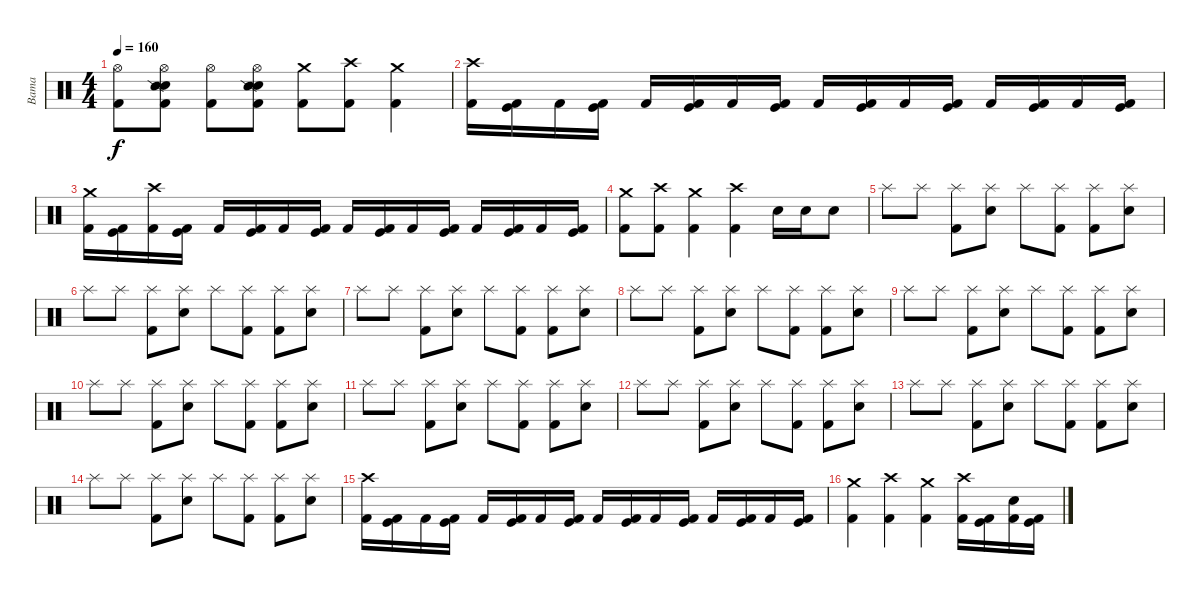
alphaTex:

\track ("Bama" "Bama") {instrument percussion}
\staff {score}
\articulation defaults
\ts (4 4)
\tempo 160
\clef neutral
\ks c
("Hi-Hat (open)" "Kick (hit) 2").8{dy f} ("Hi-Hat (open)" "Electric Snare (hit)" "Snare (side stick) 2" "Kick (hit) 2").8 ("Hi-Hat (open)" "Kick (hit) 2").8 ("Hi-Hat (open)" "Electric Snare (hit)" "Snare (side stick) 2" "Kick (hit) 2").8 ("Crash medium (hit)" "Kick (hit) 2").8 ("Crash high (hit)" "Kick (hit) 2").8 ("Crash medium (hit)" "Kick (hit) 2").4 |
("Crash high (hit)" "Kick (hit) 2").16 ("Kick (hit)" "Kick (hit) 2").16 "Kick (hit) 2".16 ("Kick (hit)" "Kick (hit) 2").16 "Kick (hit) 2".16 ("Kick (hit)" "Kick (hit) 2").16 "Kick (hit) 2".16 ("Kick (hit)" "Kick (hit) 2").16 "Kick (hit) 2".16 ("Kick (hit)" "Kick (hit) 2").16 "Kick (hit) 2".16 ("Kick (hit)" "Kick (hit) 2").16 "Kick (hit) 2".16 ("Kick (hit)" "Kick (hit) 2").16 "Kick (hit) 2".16 ("Kick (hit)" "Kick (hit) 2").16 |
("Crash medium (hit)" "Kick (hit) 2").16 ("Kick (hit)" "Kick (hit) 2").16 ("Crash high (hit)" "Kick (hit) 2").16 ("Kick (hit)" "Kick (hit) 2").16 "Kick (hit) 2".16 ("Kick (hit)" "Kick (hit) 2").16 "Kick (hit) 2".16 ("Kick (hit)" "Kick (hit) 2").16 "Kick (hit) 2".16 ("Kick (hit)" "Kick (hit) 2").16 "Kick (hit) 2".16 ("Kick (hit)" "Kick (hit) 2").16 "Kick (hit) 2".16 ("Kick (hit)" "Kick (hit) 2").16 "Kick (hit) 2".16 ("Kick (hit)" "Kick (hit) 2").16 |
("Crash medium (hit)" "Kick (hit) 2").8 ("Crash high (hit)" "Kick (hit) 2").8 ("Crash medium (hit)" "Kick (hit) 2").4 ("Crash high (hit)" "Kick (hit) 2").4 "Electric Snare (hit)".16 "Electric Snare (hit)".16 "Electric Snare (hit)".8 |
"Splash (hit)".8 "Splash (hit)".8 ("Splash (hit)" "Kick (hit) 2").8 ("Splash (hit)" "Electric Snare (hit)").8 "Splash (hit)".8 ("Splash (hit)" "Kick (hit) 2").8 ("Splash (hit)" "Kick (hit) 2").8 ("Splash (hit)" "Electric Snare (hit)").8 |
"Splash (hit)".8 "Splash (hit)".8 ("Splash (hit)" "Kick (hit) 2").8 ("Splash (hit)" "Electric Snare (hit)").8 "Splash (hit)".8 ("Splash (hit)" "Kick (hit) 2").8 ("Splash (hit)" "Kick (hit) 2").8 ("Splash (hit)" "Electric Snare (hit)").8 |
"Splash (hit)".8 "Splash (hit)".8 ("Splash (hit)" "Kick (hit) 2").8 ("Splash (hit)" "Electric Snare (hit)").8 "Splash (hit)".8 ("Splash (hit)" "Kick (hit) 2").8 ("Splash (hit)" "Kick (hit) 2").8 ("Splash (hit)" "Electric Snare (hit)").8 |
"Splash (hit)".8 "Splash (hit)".8 ("Splash (hit)" "Kick (hit) 2").8 ("Splash (hit)" "Electric Snare (hit)").8 "Splash (hit)".8 ("Splash (hit)" "Kick (hit) 2").8 ("Splash (hit)" "Kick (hit) 2").8 ("Splash (hit)" "Electric Snare (hit)").8 |
"Splash (hit)".8 "Splash (hit)".8 ("Splash (hit)" "Kick (hit) 2").8 ("Splash (hit)" "Electric Snare (hit)").8 "Splash (hit)".8 ("Splash (hit)" "Kick (hit) 2").8 ("Splash (hit)" "Kick (hit) 2").8 ("Splash (hit)" "Electric Snare (hit)").8 |
"Splash (hit)".8 "Splash (hit)".8 ("Splash (hit)" "Kick (hit) 2").8 ("Splash (hit)" "Electric Snare (hit)").8 "Splash (hit)".8 ("Splash (hit)" "Kick (hit) 2").8 ("Splash (hit)" "Kick (hit) 2").8 ("Splash (hit)" "Electric Snare (hit)").8 |
"Splash (hit)".8 "Splash (hit)".8 ("Splash (hit)" "Kick (hit) 2").8 ("Splash (hit)" "Electric Snare (hit)").8 "Splash (hit)".8 ("Splash (hit)" "Kick (hit) 2").8 ("Splash (hit)" "Kick (hit) 2").8 ("Splash (hit)" "Electric Snare (hit)").8 |
"Splash (hit)".8 "Splash (hit)".8 ("Splash (hit)" "Kick (hit) 2").8 ("Splash (hit)" "Electric Snare (hit)").8 "Splash (hit)".8 ("Splash (hit)" "Kick (hit) 2").8 ("Splash (hit)" "Kick (hit) 2").8 ("Splash (hit)" "Electric Snare (hit)").8 |
"Splash (hit)".8 "Splash (hit)".8 ("Splash (hit)" "Kick (hit) 2").8 ("Splash (hit)" "Electric Snare (hit)").8 "Splash (hit)".8 ("Splash (hit)" "Kick (hit) 2").8 ("Splash (hit)" "Kick (hit) 2").8 ("Splash (hit)" "Electric Snare (hit)").8 |
"Splash (hit)".8 "Splash (hit)".8 ("Splash (hit)" "Kick (hit) 2").8 ("Splash (hit)" "Electric Snare (hit)").8 "Splash (hit)".8 ("Splash (hit)" "Kick (hit) 2").8 ("Splash (hit)" "Kick (hit) 2").8 ("Splash (hit)" "Electric Snare (hit)").8 |
("Crash high (hit)" "Kick (hit) 2").16 ("Kick (hit)" "Kick (hit) 2").16 "Kick (hit) 2".16 ("Kick (hit)" "Kick (hit) 2").16 "Kick (hit) 2".16 ("Kick (hit)" "Kick (hit) 2").16 "Kick (hit) 2".16 ("Kick (hit)" "Kick (hit) 2").16 "Kick (hit) 2".16 ("Kick (hit)" "Kick (hit) 2").16 "Kick (hit) 2".16 ("Kick (hit)" "Kick (hit) 2").16 "Kick (hit) 2".16 ("Kick (hit)" "Kick (hit) 2").16 "Kick (hit) 2".16 ("Kick (hit)" "Kick (hit) 2").16 |
("Crash medium (hit)" "Kick (hit) 2").4 ("Crash high (hit)" "Kick (hit) 2").4 ("Crash medium (hit)" "Kick (hit) 2").4 ("Crash high (hit)" "Kick (hit) 2").16 ("Kick (hit)" "Kick (hit) 2").16 ("Snare (hit)" "Kick (hit) 2").16 ("Kick (hit)" "Kick (hit) 2").16
